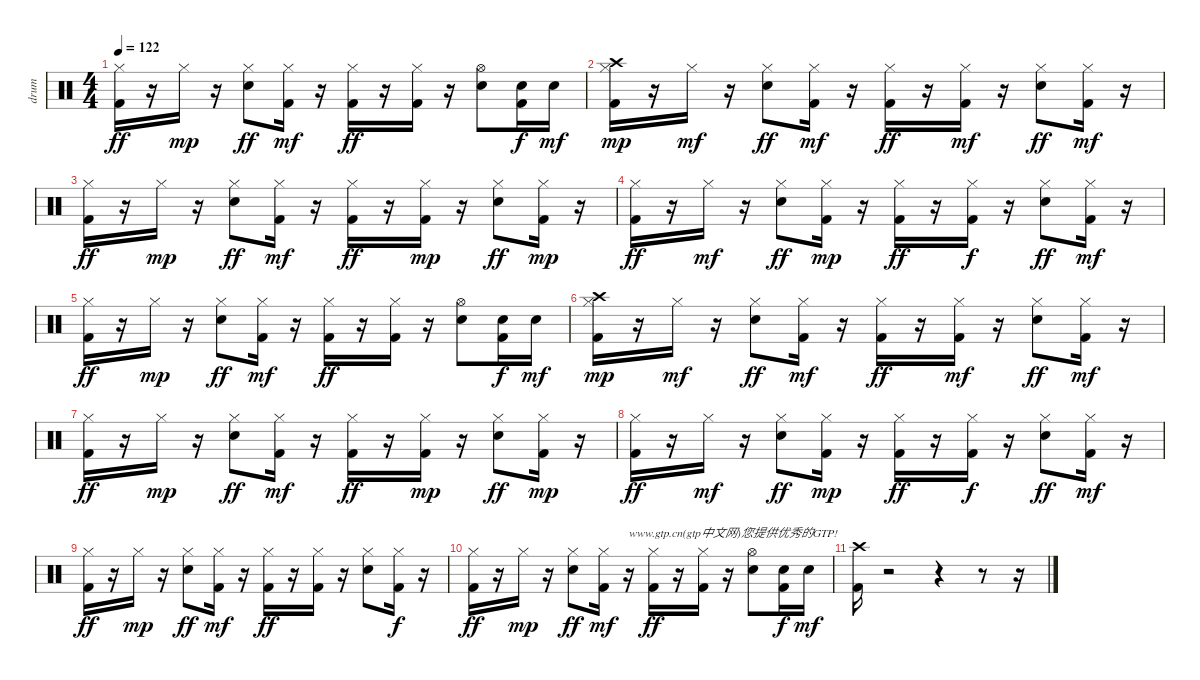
\track ("drum" "drum") {instrument percussion}
\staff {score}
\articulation defaults
\ts (4 4)
\tempo 122
\clef neutral
\ks c
("Kick (hit) 2" "Hi-Hat (closed)").16{dy ff} r.16 "Hi-Hat (closed)".16{dy mp} r.16 ("Electric Snare (hit)" "Hi-Hat (closed)").8{dy ff} ("Kick (hit) 2" "Hi-Hat (closed)").16{dy mf} r.16 ("Kick (hit) 2" "Hi-Hat (closed)").16{dy ff} r.16 ("Kick (hit) 2" "Hi-Hat (closed)").16 r.16 ("Electric Snare (hit)" "Hi-Hat (open)").8 ("Electric Snare (hit)" "Kick (hit) 2").16{dy f} "Electric Snare (hit)".16{dy mf} |
("Kick (hit) 2" "Hi-Hat (closed)" "Crash high (hit)").16{dy mp} r.16 "Hi-Hat (closed)".16{dy mf} r.16 ("Electric Snare (hit)" "Hi-Hat (closed)").8{dy ff} ("Kick (hit) 2" "Hi-Hat (closed)").16{dy mf} r.16 ("Kick (hit) 2" "Hi-Hat (closed)").16{dy ff} r.16 ("Kick (hit) 2" "Hi-Hat (closed)").16{dy mf} r.16 ("Electric Snare (hit)" "Hi-Hat (closed)").8{dy ff} ("Kick (hit) 2" "Hi-Hat (closed)").16{dy mf} r.16 |
("Kick (hit) 2" "Hi-Hat (closed)").16{dy ff} r.16 "Hi-Hat (closed)".16{dy mp} r.16 ("Electric Snare (hit)" "Hi-Hat (closed)").8{dy ff} ("Kick (hit) 2" "Hi-Hat (closed)").16{dy mf} r.16 ("Kick (hit) 2" "Hi-Hat (closed)").16{dy ff} r.16 ("Kick (hit) 2" "Hi-Hat (closed)").16{dy mp} r.16 ("Electric Snare (hit)" "Hi-Hat (closed)").8{dy ff} ("Kick (hit) 2" "Hi-Hat (closed)").16{dy mp} r.16 |
("Kick (hit) 2" "Hi-Hat (closed)").16{dy ff} r.16 "Hi-Hat (closed)".16{dy mf} r.16 ("Electric Snare (hit)" "Hi-Hat (closed)").8{dy ff} ("Kick (hit) 2" "Hi-Hat (closed)").16{dy mp} r.16 ("Kick (hit) 2" "Hi-Hat (closed)").16{dy ff} r.16 ("Kick (hit) 2" "Hi-Hat (closed)").16{dy f} r.16 ("Electric Snare (hit)" "Hi-Hat (closed)").8{dy ff} ("Kick (hit) 2" "Hi-Hat (closed)").16{dy mf} r.16 |
("Kick (hit) 2" "Hi-Hat (closed)").16{dy ff} r.16 "Hi-Hat (closed)".16{dy mp} r.16 ("Electric Snare (hit)" "Hi-Hat (closed)").8{dy ff} ("Kick (hit) 2" "Hi-Hat (closed)").16{dy mf} r.16 ("Kick (hit) 2" "Hi-Hat (closed)").16{dy ff} r.16 ("Kick (hit) 2" "Hi-Hat (closed)").16 r.16 ("Electric Snare (hit)" "Hi-Hat (open)").8 ("Electric Snare (hit)" "Kick (hit) 2").16{dy f} "Electric Snare (hit)".16{dy mf} |
("Kick (hit) 2" "Hi-Hat (closed)" "Crash high (hit)").16{dy mp} r.16 "Hi-Hat (closed)".16{dy mf} r.16 ("Electric Snare (hit)" "Hi-Hat (closed)").8{dy ff} ("Kick (hit) 2" "Hi-Hat (closed)").16{dy mf} r.16 ("Kick (hit) 2" "Hi-Hat (closed)").16{dy ff} r.16 ("Kick (hit) 2" "Hi-Hat (closed)").16{dy mf} r.16 ("Electric Snare (hit)" "Hi-Hat (closed)").8{dy ff} ("Kick (hit) 2" "Hi-Hat (closed)").16{dy mf} r.16 |
("Kick (hit) 2" "Hi-Hat (closed)").16{dy ff} r.16 "Hi-Hat (closed)".16{dy mp} r.16 ("Electric Snare (hit)" "Hi-Hat (closed)").8{dy ff} ("Kick (hit) 2" "Hi-Hat (closed)").16{dy mf} r.16 ("Kick (hit) 2" "Hi-Hat (closed)").16{dy ff} r.16 ("Kick (hit) 2" "Hi-Hat (closed)").16{dy mp} r.16 ("Electric Snare (hit)" "Hi-Hat (closed)").8{dy ff} ("Kick (hit) 2" "Hi-Hat (closed)").16{dy mp} r.16 |
("Kick (hit) 2" "Hi-Hat (closed)").16{dy ff} r.16 "Hi-Hat (closed)".16{dy mf} r.16 ("Electric Snare (hit)" "Hi-Hat (closed)").8{dy ff} ("Kick (hit) 2" "Hi-Hat (closed)").16{dy mp} r.16 ("Kick (hit) 2" "Hi-Hat (closed)").16{dy ff} r.16 ("Kick (hit) 2" "Hi-Hat (closed)").16{dy f} r.16 ("Electric Snare (hit)" "Hi-Hat (closed)").8{dy ff} ("Kick (hit) 2" "Hi-Hat (closed)").16{dy mf} r.16 |
("Kick (hit) 2" "Hi-Hat (closed)").16{dy ff} r.16 "Hi-Hat (closed)".16{dy mp} r.16 ("Electric Snare (hit)" "Hi-Hat (closed)").8{dy ff} ("Kick (hit) 2" "Hi-Hat (closed)").16{dy mf} r.16 ("Kick (hit) 2" "Hi-Hat (closed)").16{dy ff} r.16 ("Kick (hit) 2" "Hi-Hat (closed)").16 r.16 ("Electric Snare (hit)" "Hi-Hat (closed)").8 ("Kick (hit) 2" "Hi-Hat (closed)").16{dy f} r.16 |
("Kick (hit) 2" "Hi-Hat (closed)").16{dy ff} r.16 "Hi-Hat (closed)".16{dy mp} r.16 ("Electric Snare (hit)" "Hi-Hat (closed)").8{dy ff} ("Kick (hit) 2" "Hi-Hat (closed)").16{dy mf} r.16{txt "www.gtp.cn(gtp中文网)您提供优秀的GTP!"} ("Kick (hit) 2" "Hi-Hat (closed)").16{dy ff} r.16 ("Kick (hit) 2" "Hi-Hat (closed)").16 r.16 ("Electric Snare (hit)" "Hi-Hat (open)").8 ("Electric Snare (hit)" "Kick (hit) 2").16{dy f} "Electric Snare (hit)".16{dy mf} |
("Kick (hit) 2" "Crash high (hit)").16 r.2 r.4 r.8 r.16
